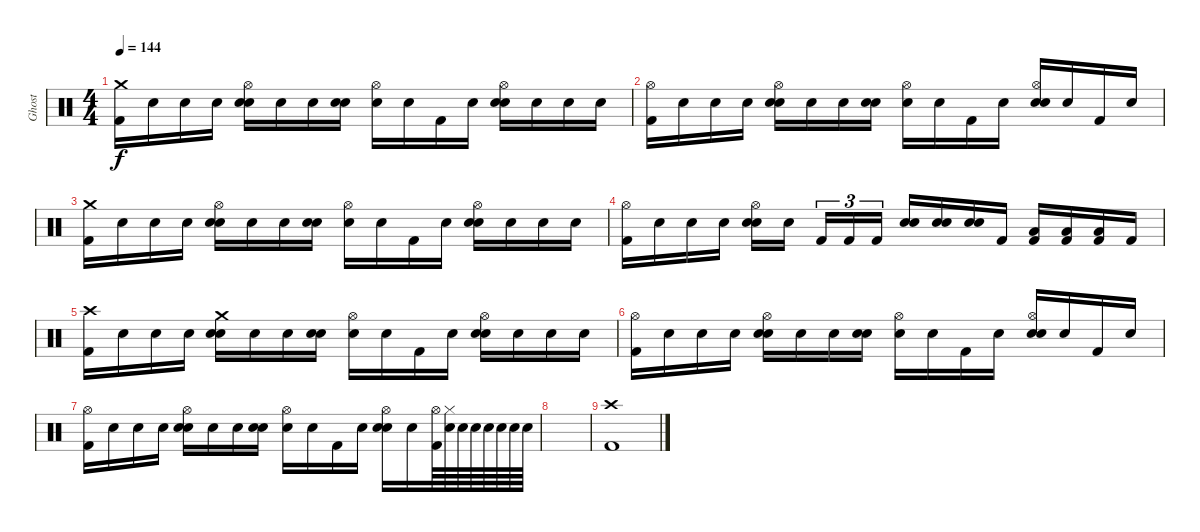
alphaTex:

\track ("Ghost" "Ghost") {instrument percussion}
\staff {score}
\articulation defaults
\ts (4 4)
\tempo 144
\clef neutral
\ks c
("Crash medium (hit)" "Kick (hit) 2").16{dy f} "Snare (hit)".16 "Snare (hit)".16 "Snare (hit)".16 ("Hi-Hat (open)" "Electric Snare (hit)" "Snare (hit)").16 "Snare (hit)".16 "Snare (hit)".16 ("Electric Snare (hit)" "Snare (hit)").16 ("Hi-Hat (open)" "Snare (hit)").16 "Snare (hit)".16 "Kick (hit) 2".16 "Snare (hit)".16 ("Hi-Hat (open)" "Electric Snare (hit)" "Snare (hit)").16 "Snare (hit)".16 "Snare (hit)".16 "Snare (hit)".16 |
("Hi-Hat (open)" "Kick (hit) 2").16 "Snare (hit)".16 "Snare (hit)".16 "Snare (hit)".16 ("Hi-Hat (open)" "Electric Snare (hit)" "Snare (hit)").16 "Snare (hit)".16 "Snare (hit)".16 ("Electric Snare (hit)" "Snare (hit)").16 ("Hi-Hat (open)" "Snare (hit)").16 "Snare (hit)".16 "Kick (hit) 2".16 "Snare (hit)".16 ("Hi-Hat (open)" "Electric Snare (hit)" "Snare (hit)").16 "Snare (hit)".16 "Kick (hit) 2".16 "Snare (hit)".16 |
("Crash medium (hit)" "Kick (hit) 2").16 "Snare (hit)".16 "Snare (hit)".16 "Snare (hit)".16 ("Hi-Hat (open)" "Electric Snare (hit)" "Snare (hit)").16 "Snare (hit)".16 "Snare (hit)".16 ("Electric Snare (hit)" "Snare (hit)").16 ("Hi-Hat (open)" "Snare (hit)").16 "Snare (hit)".16 "Kick (hit) 2".16 "Snare (hit)".16 ("Hi-Hat (open)" "Electric Snare (hit)" "Snare (hit)").16 "Snare (hit)".16 "Snare (hit)".16 "Snare (hit)".16 |
("Hi-Hat (open)" "Kick (hit) 2").16 "Snare (hit)".16 "Snare (hit)".16 "Snare (hit)".16 ("Hi-Hat (open)" "Electric Snare (hit)" "Snare (hit)").16 "Snare (hit)".16{beam splitsecondary} "Kick (hit) 2".16{tu (3 2)} "Kick (hit) 2".16{tu (3 2)} "Kick (hit) 2".16{tu (3 2)} ("Electric Snare (hit)" "Snare (hit)").16 ("Electric Snare (hit)" "Snare (hit)").16 ("Electric Snare (hit)" "Snare (hit)").16 "Kick (hit) 2".16 ("Low Tom (hit)" "Kick (hit) 2").16 ("Low Tom (hit)" "Kick (hit) 2").16 ("Low Tom (hit)" "Kick (hit) 2").16 "Kick (hit) 2".16 |
("Crash high (hit)" "Kick (hit) 2").16 "Snare (hit)".16 "Snare (hit)".16 "Snare (hit)".16 ("Crash medium (hit)" "Electric Snare (hit)" "Snare (hit)").16 "Snare (hit)".16 "Snare (hit)".16 ("Electric Snare (hit)" "Snare (hit)").16 ("Hi-Hat (open)" "Snare (hit)").16 "Snare (hit)".16 "Kick (hit) 2".16 "Snare (hit)".16 ("Hi-Hat (open)" "Electric Snare (hit)" "Snare (hit)").16 "Snare (hit)".16 "Snare (hit)".16 "Snare (hit)".16 |
("Hi-Hat (open)" "Kick (hit) 2").16 "Snare (hit)".16 "Snare (hit)".16 "Snare (hit)".16 ("Hi-Hat (open)" "Electric Snare (hit)" "Snare (hit)").16 "Snare (hit)".16 "Snare (hit)".16 ("Electric Snare (hit)" "Snare (hit)").16 ("Hi-Hat (open)" "Snare (hit)").16 "Snare (hit)".16 "Kick (hit) 2".16 "Snare (hit)".16 ("Hi-Hat (open)" "Electric Snare (hit)" "Snare (hit)").16 "Snare (hit)".16 "Kick (hit) 2".16 "Snare (hit)".16 |
("Hi-Hat (open)" "Kick (hit) 2").16 "Snare (hit)".16 "Snare (hit)".16 "Snare (hit)".16 ("Hi-Hat (open)" "Electric Snare (hit)" "Snare (hit)").16 "Snare (hit)".16 "Snare (hit)".16 ("Electric Snare (hit)" "Snare (hit)").16 ("Hi-Hat (open)" "Snare (hit)").16 "Snare (hit)".16 "Kick (hit) 2".16 "Snare (hit)".16 ("Hi-Hat (open)" "Electric Snare (hit)" "Snare (hit)").16 "Snare (hit)".16 ("Hi-Hat (open)" "Kick (hit) 2").64 ("Hi-Hat (closed)" "Snare (hit)").64 "Snare (hit)".64 "Snare (hit)".64 "Snare (hit)".64 "Snare (hit)".64 "Snare (hit)".64 "Snare (hit)".64 |
|
("Crash high (hit)" "Kick (hit) 2").1
